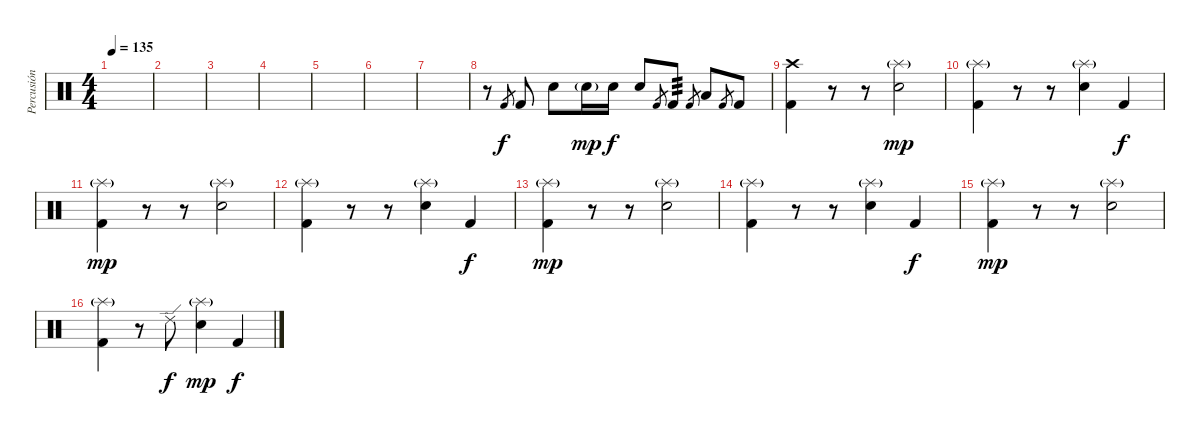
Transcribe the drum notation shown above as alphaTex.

\track ("Percusión" "Percusión") {instrument percussion}
\staff {score}
\articulation defaults
\ts (4 4)
\tempo 135
\clef neutral
\ks c
|
|
|
|
|
|
|
r.8 "Kick (hit) 2".8{gr} "Kick (hit) 2".8 "Snare (hit) 2".8 "Snare (hit) 2"{g}.16{dy mp} "Snare (hit) 2".16{dy f} "Snare (hit) 2".8 "Kick (hit) 2".8{gr} "Kick (hit) 2".8{tp 3} "Kick (hit) 2".8{gr} "Low Floor Tom (hit)".8 "Kick (hit) 2".8{gr} "Kick (hit) 2".8 |
("Kick (hit) 2" "Crash high (hit)").4 r.8 r.8 ("Snare (hit) 2" "Splash (hit)"{g}).2{dy mp} |
("Kick (hit) 2" "Splash (hit)"{g}).4 r.8 r.8 ("Snare (hit) 2" "Splash (hit)"{g}).4 "Kick (hit) 2".4{dy f} |
("Kick (hit) 2" "Splash (hit)"{g}).4{dy mp} r.8 r.8 ("Snare (hit) 2" "Splash (hit)"{g}).2 |
("Kick (hit) 2" "Splash (hit)"{g}).4 r.8 r.8 ("Snare (hit) 2" "Splash (hit)"{g}).4 "Kick (hit) 2".4{dy f} |
("Kick (hit) 2" "Splash (hit)"{g}).4{dy mp} r.8 r.8 ("Snare (hit) 2" "Splash (hit)"{g}).2 |
("Kick (hit) 2" "Splash (hit)"{g}).4 r.8 r.8 ("Snare (hit) 2" "Splash (hit)"{g}).4 "Kick (hit) 2".4{dy f} |
("Kick (hit) 2" "Splash (hit)"{g}).4{dy mp} r.8 r.8 ("Snare (hit) 2" "Splash (hit)"{g}).2 |
("Kick (hit) 2" "Splash (hit)"{g}).4 r.8 "Ride (edge) 2".8{dy f} ("Snare (hit) 2" "Splash (hit)"{g}).4{dy mp} "Kick (hit) 2".4{dy f}
